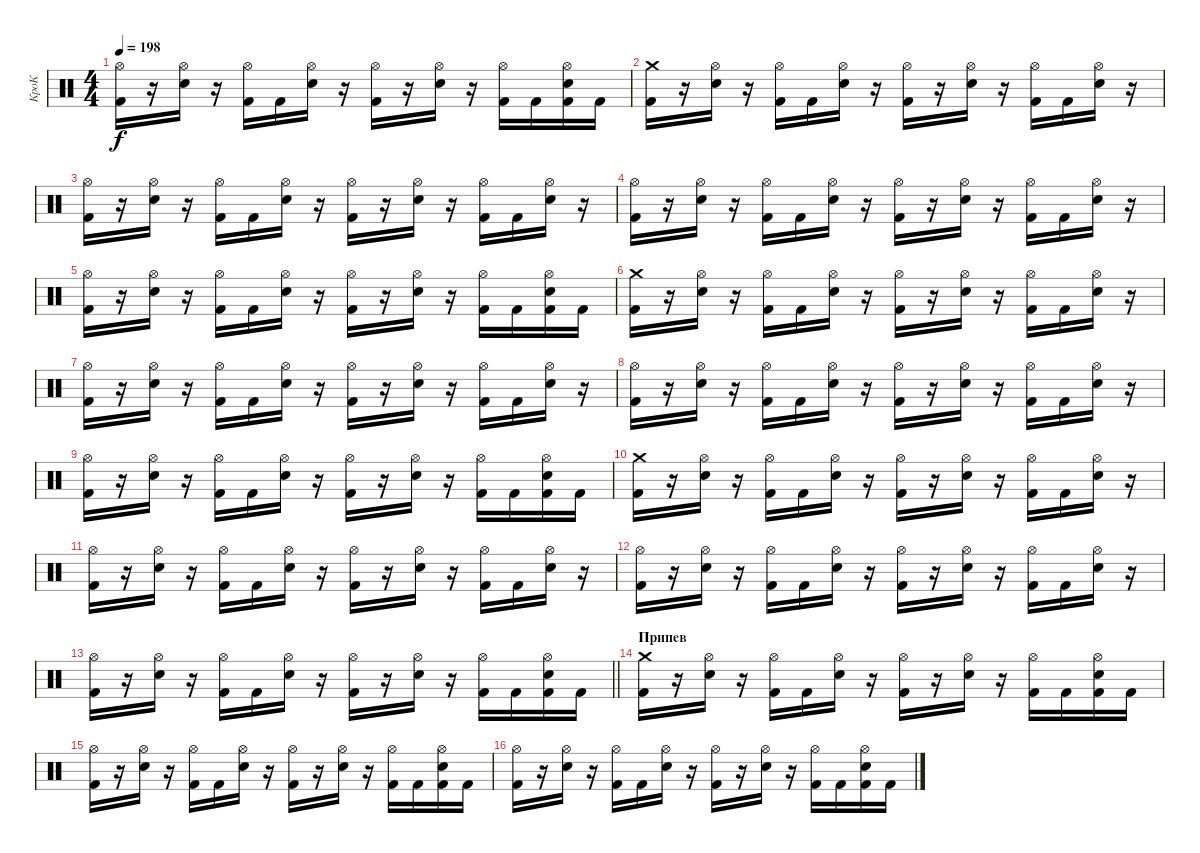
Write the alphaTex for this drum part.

\track ("КроК" "КроК") {instrument percussion}
\staff {score}
\articulation defaults
\ts (4 4)
\tempo 198
\clef neutral
\ks c
("Hi-Hat (open)" "Kick (hit) 2").16{dy f} r.16 ("Hi-Hat (open)" "Electric Snare (hit)").16 r.16 ("Hi-Hat (open)" "Kick (hit) 2").16 "Kick (hit) 2".16 ("Hi-Hat (open)" "Electric Snare (hit)").16 r.16 ("Hi-Hat (open)" "Kick (hit) 2").16 r.16 ("Hi-Hat (open)" "Electric Snare (hit)").16 r.16 ("Hi-Hat (open)" "Kick (hit) 2").16 "Kick (hit) 2".16 ("Hi-Hat (open)" "Electric Snare (hit)" "Kick (hit) 2").16 "Kick (hit) 2".16 |
("Crash medium (hit)" "Kick (hit) 2").16 r.16 ("Hi-Hat (open)" "Electric Snare (hit)").16 r.16 ("Hi-Hat (open)" "Kick (hit) 2").16 "Kick (hit) 2".16 ("Hi-Hat (open)" "Electric Snare (hit)").16 r.16 ("Hi-Hat (open)" "Kick (hit) 2").16 r.16 ("Hi-Hat (open)" "Electric Snare (hit)").16 r.16 ("Hi-Hat (open)" "Kick (hit) 2").16 "Kick (hit) 2".16 ("Hi-Hat (open)" "Electric Snare (hit)").16 r.16 |
("Hi-Hat (open)" "Kick (hit) 2").16 r.16 ("Hi-Hat (open)" "Electric Snare (hit)").16 r.16 ("Hi-Hat (open)" "Kick (hit) 2").16 "Kick (hit) 2".16 ("Hi-Hat (open)" "Electric Snare (hit)").16 r.16 ("Hi-Hat (open)" "Kick (hit) 2").16 r.16 ("Hi-Hat (open)" "Electric Snare (hit)").16 r.16 ("Hi-Hat (open)" "Kick (hit) 2").16 "Kick (hit) 2".16 ("Hi-Hat (open)" "Electric Snare (hit)").16 r.16 |
("Hi-Hat (open)" "Kick (hit) 2").16 r.16 ("Hi-Hat (open)" "Electric Snare (hit)").16 r.16 ("Hi-Hat (open)" "Kick (hit) 2").16 "Kick (hit) 2".16 ("Hi-Hat (open)" "Electric Snare (hit)").16 r.16 ("Hi-Hat (open)" "Kick (hit) 2").16 r.16 ("Hi-Hat (open)" "Electric Snare (hit)").16 r.16 ("Hi-Hat (open)" "Kick (hit) 2").16 "Kick (hit) 2".16 ("Hi-Hat (open)" "Electric Snare (hit)").16 r.16 |
("Hi-Hat (open)" "Kick (hit) 2").16 r.16 ("Hi-Hat (open)" "Electric Snare (hit)").16 r.16 ("Hi-Hat (open)" "Kick (hit) 2").16 "Kick (hit) 2".16 ("Hi-Hat (open)" "Electric Snare (hit)").16 r.16 ("Hi-Hat (open)" "Kick (hit) 2").16 r.16 ("Hi-Hat (open)" "Electric Snare (hit)").16 r.16 ("Hi-Hat (open)" "Kick (hit) 2").16 "Kick (hit) 2".16 ("Hi-Hat (open)" "Electric Snare (hit)" "Kick (hit) 2").16 "Kick (hit) 2".16 |
("Crash medium (hit)" "Kick (hit) 2").16 r.16 ("Hi-Hat (open)" "Electric Snare (hit)").16 r.16 ("Hi-Hat (open)" "Kick (hit) 2").16 "Kick (hit) 2".16 ("Hi-Hat (open)" "Electric Snare (hit)").16 r.16 ("Hi-Hat (open)" "Kick (hit) 2").16 r.16 ("Hi-Hat (open)" "Electric Snare (hit)").16 r.16 ("Hi-Hat (open)" "Kick (hit) 2").16 "Kick (hit) 2".16 ("Hi-Hat (open)" "Electric Snare (hit)").16 r.16 |
("Hi-Hat (open)" "Kick (hit) 2").16 r.16 ("Hi-Hat (open)" "Electric Snare (hit)").16 r.16 ("Hi-Hat (open)" "Kick (hit) 2").16 "Kick (hit) 2".16 ("Hi-Hat (open)" "Electric Snare (hit)").16 r.16 ("Hi-Hat (open)" "Kick (hit) 2").16 r.16 ("Hi-Hat (open)" "Electric Snare (hit)").16 r.16 ("Hi-Hat (open)" "Kick (hit) 2").16 "Kick (hit) 2".16 ("Hi-Hat (open)" "Electric Snare (hit)").16 r.16 |
("Hi-Hat (open)" "Kick (hit) 2").16 r.16 ("Hi-Hat (open)" "Electric Snare (hit)").16 r.16 ("Hi-Hat (open)" "Kick (hit) 2").16 "Kick (hit) 2".16 ("Hi-Hat (open)" "Electric Snare (hit)").16 r.16 ("Hi-Hat (open)" "Kick (hit) 2").16 r.16 ("Hi-Hat (open)" "Electric Snare (hit)").16 r.16 ("Hi-Hat (open)" "Kick (hit) 2").16 "Kick (hit) 2".16 ("Hi-Hat (open)" "Electric Snare (hit)").16 r.16 |
("Hi-Hat (open)" "Kick (hit) 2").16 r.16 ("Hi-Hat (open)" "Electric Snare (hit)").16 r.16 ("Hi-Hat (open)" "Kick (hit) 2").16 "Kick (hit) 2".16 ("Hi-Hat (open)" "Electric Snare (hit)").16 r.16 ("Hi-Hat (open)" "Kick (hit) 2").16 r.16 ("Hi-Hat (open)" "Electric Snare (hit)").16 r.16 ("Hi-Hat (open)" "Kick (hit) 2").16 "Kick (hit) 2".16 ("Hi-Hat (open)" "Electric Snare (hit)" "Kick (hit) 2").16 "Kick (hit) 2".16 |
("Crash medium (hit)" "Kick (hit) 2").16 r.16 ("Hi-Hat (open)" "Electric Snare (hit)").16 r.16 ("Hi-Hat (open)" "Kick (hit) 2").16 "Kick (hit) 2".16 ("Hi-Hat (open)" "Electric Snare (hit)").16 r.16 ("Hi-Hat (open)" "Kick (hit) 2").16 r.16 ("Hi-Hat (open)" "Electric Snare (hit)").16 r.16 ("Hi-Hat (open)" "Kick (hit) 2").16 "Kick (hit) 2".16 ("Hi-Hat (open)" "Electric Snare (hit)").16 r.16 |
("Hi-Hat (open)" "Kick (hit) 2").16 r.16 ("Hi-Hat (open)" "Electric Snare (hit)").16 r.16 ("Hi-Hat (open)" "Kick (hit) 2").16 "Kick (hit) 2".16 ("Hi-Hat (open)" "Electric Snare (hit)").16 r.16 ("Hi-Hat (open)" "Kick (hit) 2").16 r.16 ("Hi-Hat (open)" "Electric Snare (hit)").16 r.16 ("Hi-Hat (open)" "Kick (hit) 2").16 "Kick (hit) 2".16 ("Hi-Hat (open)" "Electric Snare (hit)").16 r.16 |
("Hi-Hat (open)" "Kick (hit) 2").16 r.16 ("Hi-Hat (open)" "Electric Snare (hit)").16 r.16 ("Hi-Hat (open)" "Kick (hit) 2").16 "Kick (hit) 2".16 ("Hi-Hat (open)" "Electric Snare (hit)").16 r.16 ("Hi-Hat (open)" "Kick (hit) 2").16 r.16 ("Hi-Hat (open)" "Electric Snare (hit)").16 r.16 ("Hi-Hat (open)" "Kick (hit) 2").16 "Kick (hit) 2".16 ("Hi-Hat (open)" "Electric Snare (hit)").16 r.16 |
\barLineRight lightlight
("Hi-Hat (open)" "Kick (hit) 2").16 r.16 ("Hi-Hat (open)" "Electric Snare (hit)").16 r.16 ("Hi-Hat (open)" "Kick (hit) 2").16 "Kick (hit) 2".16 ("Hi-Hat (open)" "Electric Snare (hit)").16 r.16 ("Hi-Hat (open)" "Kick (hit) 2").16 r.16 ("Hi-Hat (open)" "Electric Snare (hit)").16 r.16 ("Hi-Hat (open)" "Kick (hit) 2").16 "Kick (hit) 2".16 ("Hi-Hat (open)" "Electric Snare (hit)" "Kick (hit) 2").16 "Kick (hit) 2".16 |
\section ("" "Припев")
("Crash medium (hit)" "Kick (hit) 2").16 r.16 ("Hi-Hat (open)" "Electric Snare (hit)").16 r.16 ("Hi-Hat (open)" "Kick (hit) 2").16 "Kick (hit) 2".16 ("Hi-Hat (open)" "Electric Snare (hit)").16 r.16 ("Hi-Hat (open)" "Kick (hit) 2").16 r.16 ("Hi-Hat (open)" "Electric Snare (hit)").16 r.16 ("Hi-Hat (open)" "Kick (hit) 2").16 "Kick (hit) 2".16 ("Hi-Hat (open)" "Electric Snare (hit)" "Kick (hit) 2").16 "Kick (hit) 2".16 |
("Hi-Hat (open)" "Kick (hit) 2").16 r.16 ("Hi-Hat (open)" "Electric Snare (hit)").16 r.16 ("Hi-Hat (open)" "Kick (hit) 2").16 "Kick (hit) 2".16 ("Hi-Hat (open)" "Electric Snare (hit)").16 r.16 ("Hi-Hat (open)" "Kick (hit) 2").16 r.16 ("Hi-Hat (open)" "Electric Snare (hit)").16 r.16 ("Hi-Hat (open)" "Kick (hit) 2").16 "Kick (hit) 2".16 ("Hi-Hat (open)" "Electric Snare (hit)" "Kick (hit) 2").16 "Kick (hit) 2".16 |
("Hi-Hat (open)" "Kick (hit) 2").16 r.16 ("Hi-Hat (open)" "Electric Snare (hit)").16 r.16 ("Hi-Hat (open)" "Kick (hit) 2").16 "Kick (hit) 2".16 ("Hi-Hat (open)" "Electric Snare (hit)").16 r.16 ("Hi-Hat (open)" "Kick (hit) 2").16 r.16 ("Hi-Hat (open)" "Electric Snare (hit)").16 r.16 ("Hi-Hat (open)" "Kick (hit) 2").16 "Kick (hit) 2".16 ("Hi-Hat (open)" "Electric Snare (hit)" "Kick (hit) 2").16 "Kick (hit) 2".16
